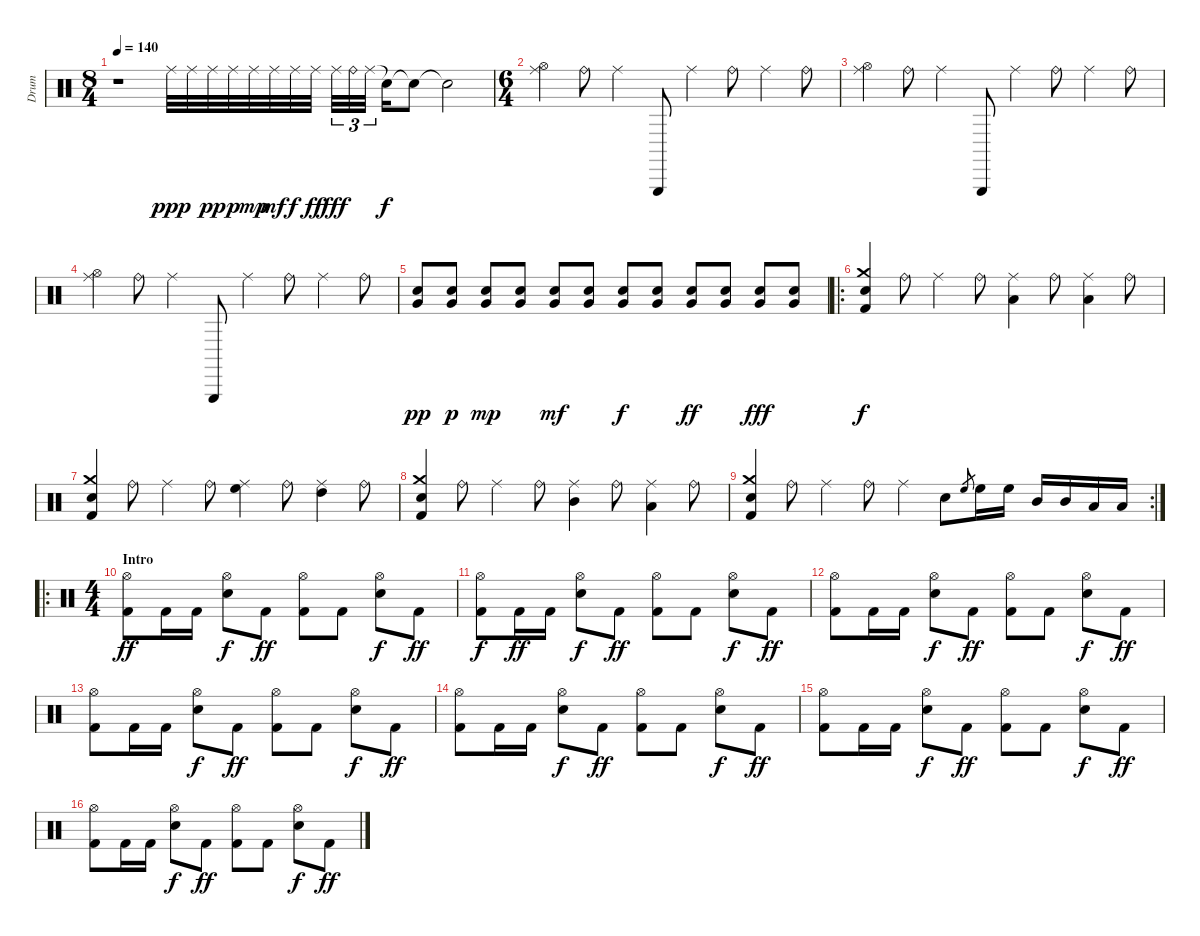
\track ("Drum" "Drum") {instrument percussion}
\staff {score}
\articulation defaults
\ts (8 4)
\tempo 140
\clef neutral
\ks c
r.1{dy ppp} "Ride (middle)".32 "Ride (middle)".32 "Ride (middle)".32{dy pp} "Ride (middle)".32{dy p} "Ride (middle)".32{dy mp} "Ride (middle)".32{dy mf} "Ride (middle)".32{dy f} "Ride (middle)".32{dy ff} "Ride (middle)".32{tu (3 2) dy fff} "Ride (bell)".32{tu (3 2)} "Ride (middle)".32{tu (3 2)} "Snare (hit)"{t}.16{dy f} "Snare (hit)"{t}.8 "Snare (hit)"{t}.2 |
\ts (6 4)
("Ride (middle)" "Hi-Hat (open)").4 "Ride (bell)".8 "Ride (middle)".4 "Triangle (hit)".8 "Ride (middle)".4 "Ride (bell)".8 "Ride (middle)".4 "Ride (bell)".8 |
("Ride (middle)" "Hi-Hat (open)").4 "Ride (bell)".8 "Ride (middle)".4 "Triangle (hit)".8 "Ride (middle)".4 "Ride (bell)".8 "Ride (middle)".4 "Ride (bell)".8 |
("Ride (middle)" "Hi-Hat (open)").4 "Ride (bell)".8 "Ride (middle)".4 "Triangle (hit)".8 "Ride (middle)".4 "Ride (bell)".8 "Ride (middle)".4 "Ride (bell)".8 |
("Very Low Tom (hit)" "Snare (hit) 2").8{dy pp} ("Very Low Tom (hit)" "Snare (hit) 2").8{dy p} ("Very Low Tom (hit)" "Snare (hit) 2").8{dy mp} ("Very Low Tom (hit)" "Snare (hit) 2").8 ("Very Low Tom (hit)" "Snare (hit) 2").8{dy mf} ("Very Low Tom (hit)" "Snare (hit) 2").8 ("Very Low Tom (hit)" "Snare (hit) 2").8{dy f} ("Very Low Tom (hit)" "Snare (hit) 2").8 ("Very Low Tom (hit)" "Snare (hit) 2").8{dy ff} ("Very Low Tom (hit)" "Snare (hit) 2").8 ("Very Low Tom (hit)" "Snare (hit) 2").8{dy fff} ("Very Low Tom (hit)" "Snare (hit) 2").8 |
\ro
("Crash medium (hit)" "Snare (hit) 2" "Kick (hit) 2").4{dy f} "Ride (bell)".8 "Ride (middle)".4 "Ride (bell)".8 ("Ride (middle)" "Low Tom (hit)").4 "Ride (bell)".8 ("Ride (middle)" "Low Floor Tom (hit)").4 "Ride (bell)".8 |
("Crash medium (hit)" "Snare (hit) 2" "Kick (hit) 2").4 "Ride (bell)".8 "Ride (middle)".4 "Ride (bell)".8 ("Ride (middle)" "High Floor Tom (hit)").4 "Ride (bell)".8 ("Ride (middle)" "High Tom (hit)").4 "Ride (bell)".8 |
("Crash medium (hit)" "Snare (hit) 2" "Kick (hit) 2").4 "Ride (bell)".8 "Ride (middle)".4 "Ride (bell)".8 ("Ride (middle)" "Mid Tom (hit)").4 "Ride (bell)".8 ("Ride (middle)" "Low Tom (hit)").4 "Ride (bell)".8 |
\rc 2
("Crash medium (hit)" "Snare (hit) 2" "Kick (hit) 2").4 "Ride (bell)".8 "Ride (middle)".4 "Ride (bell)".8 "Ride (middle)".4 "Snare (hit) 2".8 "High Floor Tom (hit)".8{gr} "High Floor Tom (hit)".16 "High Floor Tom (hit)".16 "Mid Tom (hit)".16 "Mid Tom (hit)".16 "Low Tom (hit)".16 "Low Tom (hit)".16 |
\ro
\ts (4 4)
\section ("" "Intro")
("Hi-Hat (open)" "Kick (hit) 2").8{dy ff} "Kick (hit) 2".16 "Kick (hit) 2".16 ("Hi-Hat (open)" "Snare (hit) 2").8{dy f} "Kick (hit) 2".8{dy ff} ("Hi-Hat (open)" "Kick (hit) 2").8 "Kick (hit) 2".8 ("Hi-Hat (open)" "Snare (hit) 2").8{dy f} "Kick (hit) 2".8{dy ff} |
("Hi-Hat (open)" "Kick (hit) 2").8{dy f} "Kick (hit) 2".16{dy ff} "Kick (hit) 2".16 ("Hi-Hat (open)" "Snare (hit) 2").8{dy f} "Kick (hit) 2".8{dy ff} ("Hi-Hat (open)" "Kick (hit) 2").8 "Kick (hit) 2".8 ("Hi-Hat (open)" "Snare (hit) 2").8{dy f} "Kick (hit) 2".8{dy ff} |
("Hi-Hat (open)" "Kick (hit) 2").8 "Kick (hit) 2".16 "Kick (hit) 2".16 ("Hi-Hat (open)" "Snare (hit) 2").8{dy f} "Kick (hit) 2".8{dy ff} ("Hi-Hat (open)" "Kick (hit) 2").8 "Kick (hit) 2".8 ("Hi-Hat (open)" "Snare (hit) 2").8{dy f} "Kick (hit) 2".8{dy ff} |
("Hi-Hat (open)" "Kick (hit) 2").8 "Kick (hit) 2".16 "Kick (hit) 2".16 ("Hi-Hat (open)" "Snare (hit) 2").8{dy f} "Kick (hit) 2".8{dy ff} ("Hi-Hat (open)" "Kick (hit) 2").8 "Kick (hit) 2".8 ("Hi-Hat (open)" "Snare (hit) 2").8{dy f} "Kick (hit) 2".8{dy ff} |
("Hi-Hat (open)" "Kick (hit) 2").8 "Kick (hit) 2".16 "Kick (hit) 2".16 ("Hi-Hat (open)" "Snare (hit) 2").8{dy f} "Kick (hit) 2".8{dy ff} ("Hi-Hat (open)" "Kick (hit) 2").8 "Kick (hit) 2".8 ("Hi-Hat (open)" "Snare (hit) 2").8{dy f} "Kick (hit) 2".8{dy ff} |
("Hi-Hat (open)" "Kick (hit) 2").8 "Kick (hit) 2".16 "Kick (hit) 2".16 ("Hi-Hat (open)" "Snare (hit) 2").8{dy f} "Kick (hit) 2".8{dy ff} ("Hi-Hat (open)" "Kick (hit) 2").8 "Kick (hit) 2".8 ("Hi-Hat (open)" "Snare (hit) 2").8{dy f} "Kick (hit) 2".8{dy ff} |
("Hi-Hat (open)" "Kick (hit) 2").8 "Kick (hit) 2".16 "Kick (hit) 2".16 ("Hi-Hat (open)" "Snare (hit) 2").8{dy f} "Kick (hit) 2".8{dy ff} ("Hi-Hat (open)" "Kick (hit) 2").8 "Kick (hit) 2".8 ("Hi-Hat (open)" "Snare (hit) 2").8{dy f} "Kick (hit) 2".8{dy ff}
